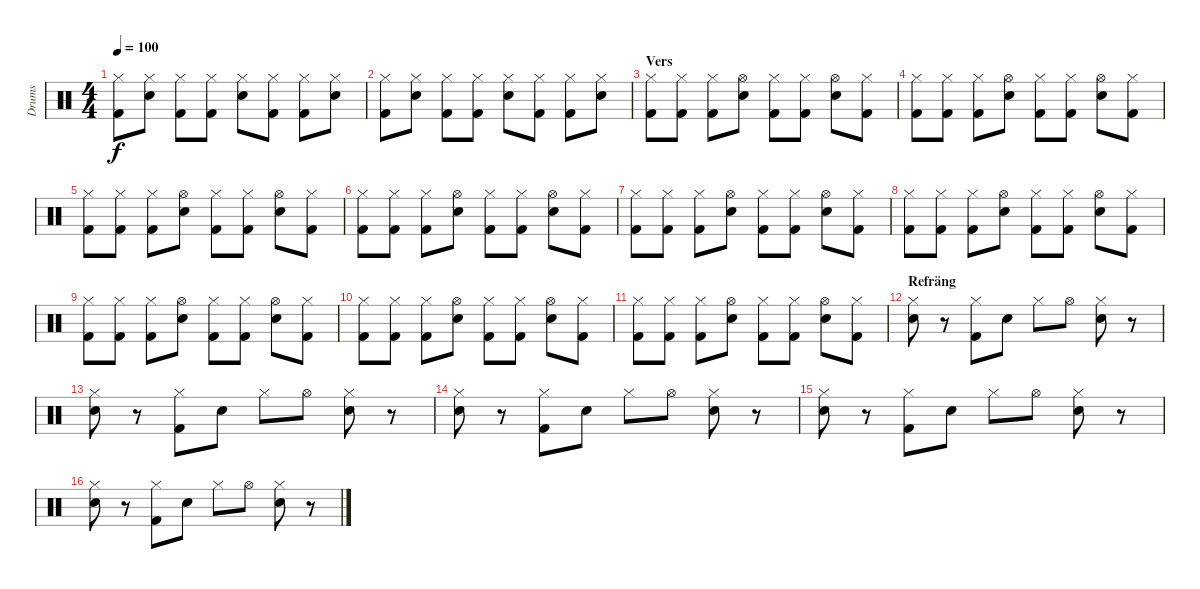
\track ("Drums" "Drums") {instrument percussion}
\staff {score}
\articulation defaults
\ts (4 4)
\tempo 100
\clef neutral
\ks c
("Hi-Hat (closed)" "Kick (hit) 2").8{dy f} ("Hi-Hat (closed)" "Snare (hit) 2").8 ("Hi-Hat (closed)" "Kick (hit) 2").8 ("Hi-Hat (closed)" "Kick (hit) 2").8 ("Hi-Hat (closed)" "Snare (hit) 2").8 ("Hi-Hat (closed)" "Kick (hit) 2").8 ("Hi-Hat (closed)" "Kick (hit) 2").8 ("Hi-Hat (closed)" "Snare (hit) 2").8 |
("Hi-Hat (closed)" "Kick (hit) 2").8 ("Hi-Hat (closed)" "Snare (hit) 2").8 ("Hi-Hat (closed)" "Kick (hit) 2").8 ("Hi-Hat (closed)" "Kick (hit) 2").8 ("Hi-Hat (closed)" "Snare (hit) 2").8 ("Hi-Hat (closed)" "Kick (hit) 2").8 ("Hi-Hat (closed)" "Kick (hit) 2").8 ("Hi-Hat (closed)" "Snare (hit) 2").8 |
\section ("" "Vers")
("Hi-Hat (closed)" "Kick (hit) 2").8 ("Hi-Hat (closed)" "Kick (hit) 2").8 ("Hi-Hat (closed)" "Kick (hit) 2").8 ("Hi-Hat (open)" "Snare (hit) 2").8 ("Hi-Hat (closed)" "Kick (hit) 2").8 ("Hi-Hat (closed)" "Kick (hit) 2").8 ("Hi-Hat (open)" "Snare (hit) 2").8 ("Hi-Hat (closed)" "Kick (hit) 2").8 |
("Hi-Hat (closed)" "Kick (hit) 2").8 ("Hi-Hat (closed)" "Kick (hit) 2").8 ("Hi-Hat (closed)" "Kick (hit) 2").8 ("Hi-Hat (open)" "Snare (hit) 2").8 ("Hi-Hat (closed)" "Kick (hit) 2").8 ("Hi-Hat (closed)" "Kick (hit) 2").8 ("Hi-Hat (open)" "Snare (hit) 2").8 ("Hi-Hat (closed)" "Kick (hit) 2").8 |
("Hi-Hat (closed)" "Kick (hit) 2").8 ("Hi-Hat (closed)" "Kick (hit) 2").8 ("Hi-Hat (closed)" "Kick (hit) 2").8 ("Hi-Hat (open)" "Snare (hit) 2").8 ("Hi-Hat (closed)" "Kick (hit) 2").8 ("Hi-Hat (closed)" "Kick (hit) 2").8 ("Hi-Hat (open)" "Snare (hit) 2").8 ("Hi-Hat (closed)" "Kick (hit) 2").8 |
("Hi-Hat (closed)" "Kick (hit) 2").8 ("Hi-Hat (closed)" "Kick (hit) 2").8 ("Hi-Hat (closed)" "Kick (hit) 2").8 ("Hi-Hat (open)" "Snare (hit) 2").8 ("Hi-Hat (closed)" "Kick (hit) 2").8 ("Hi-Hat (closed)" "Kick (hit) 2").8 ("Hi-Hat (open)" "Snare (hit) 2").8 ("Hi-Hat (closed)" "Kick (hit) 2").8 |
("Hi-Hat (closed)" "Kick (hit) 2").8 ("Hi-Hat (closed)" "Kick (hit) 2").8 ("Hi-Hat (closed)" "Kick (hit) 2").8 ("Hi-Hat (open)" "Snare (hit) 2").8 ("Hi-Hat (closed)" "Kick (hit) 2").8 ("Hi-Hat (closed)" "Kick (hit) 2").8 ("Hi-Hat (open)" "Snare (hit) 2").8 ("Hi-Hat (closed)" "Kick (hit) 2").8 |
("Hi-Hat (closed)" "Kick (hit) 2").8 ("Hi-Hat (closed)" "Kick (hit) 2").8 ("Hi-Hat (closed)" "Kick (hit) 2").8 ("Hi-Hat (open)" "Snare (hit) 2").8 ("Hi-Hat (closed)" "Kick (hit) 2").8 ("Hi-Hat (closed)" "Kick (hit) 2").8 ("Hi-Hat (open)" "Snare (hit) 2").8 ("Hi-Hat (closed)" "Kick (hit) 2").8 |
("Hi-Hat (closed)" "Kick (hit) 2").8 ("Hi-Hat (closed)" "Kick (hit) 2").8 ("Hi-Hat (closed)" "Kick (hit) 2").8 ("Hi-Hat (open)" "Snare (hit) 2").8 ("Hi-Hat (closed)" "Kick (hit) 2").8 ("Hi-Hat (closed)" "Kick (hit) 2").8 ("Hi-Hat (open)" "Snare (hit) 2").8 ("Hi-Hat (closed)" "Kick (hit) 2").8 |
("Hi-Hat (closed)" "Kick (hit) 2").8 ("Hi-Hat (closed)" "Kick (hit) 2").8 ("Hi-Hat (closed)" "Kick (hit) 2").8 ("Hi-Hat (open)" "Snare (hit) 2").8 ("Hi-Hat (closed)" "Kick (hit) 2").8 ("Hi-Hat (closed)" "Kick (hit) 2").8 ("Hi-Hat (open)" "Snare (hit) 2").8 ("Hi-Hat (closed)" "Kick (hit) 2").8 |
("Hi-Hat (closed)" "Kick (hit) 2").8 ("Hi-Hat (closed)" "Kick (hit) 2").8 ("Hi-Hat (closed)" "Kick (hit) 2").8 ("Hi-Hat (open)" "Snare (hit) 2").8 ("Hi-Hat (closed)" "Kick (hit) 2").8 ("Hi-Hat (closed)" "Kick (hit) 2").8 ("Hi-Hat (open)" "Snare (hit) 2").8 ("Hi-Hat (closed)" "Kick (hit) 2").8 |
\section ("" "Refräng")
("Hi-Hat (closed)" "Snare (hit) 2").8 r.8 ("Hi-Hat (closed)" "Kick (hit) 2").8 "Snare (hit) 2".8 "Hi-Hat (closed)".8 "Hi-Hat (open)".8 ("Hi-Hat (closed)" "Snare (hit) 2").8 r.8 |
("Hi-Hat (closed)" "Snare (hit) 2").8 r.8 ("Hi-Hat (closed)" "Kick (hit) 2").8 "Snare (hit) 2".8 "Hi-Hat (closed)".8 "Hi-Hat (open)".8 ("Hi-Hat (closed)" "Snare (hit) 2").8 r.8 |
("Hi-Hat (closed)" "Snare (hit) 2").8 r.8 ("Hi-Hat (closed)" "Kick (hit) 2").8 "Snare (hit) 2".8 "Hi-Hat (closed)".8 "Hi-Hat (open)".8 ("Hi-Hat (closed)" "Snare (hit) 2").8 r.8 |
("Hi-Hat (closed)" "Snare (hit) 2").8 r.8 ("Hi-Hat (closed)" "Kick (hit) 2").8 "Snare (hit) 2".8 "Hi-Hat (closed)".8 "Hi-Hat (open)".8 ("Hi-Hat (closed)" "Snare (hit) 2").8 r.8 |
("Hi-Hat (closed)" "Snare (hit) 2").8 r.8 ("Hi-Hat (closed)" "Kick (hit) 2").8 "Snare (hit) 2".8 "Hi-Hat (closed)".8 "Hi-Hat (open)".8 ("Hi-Hat (closed)" "Snare (hit) 2").8 r.8
